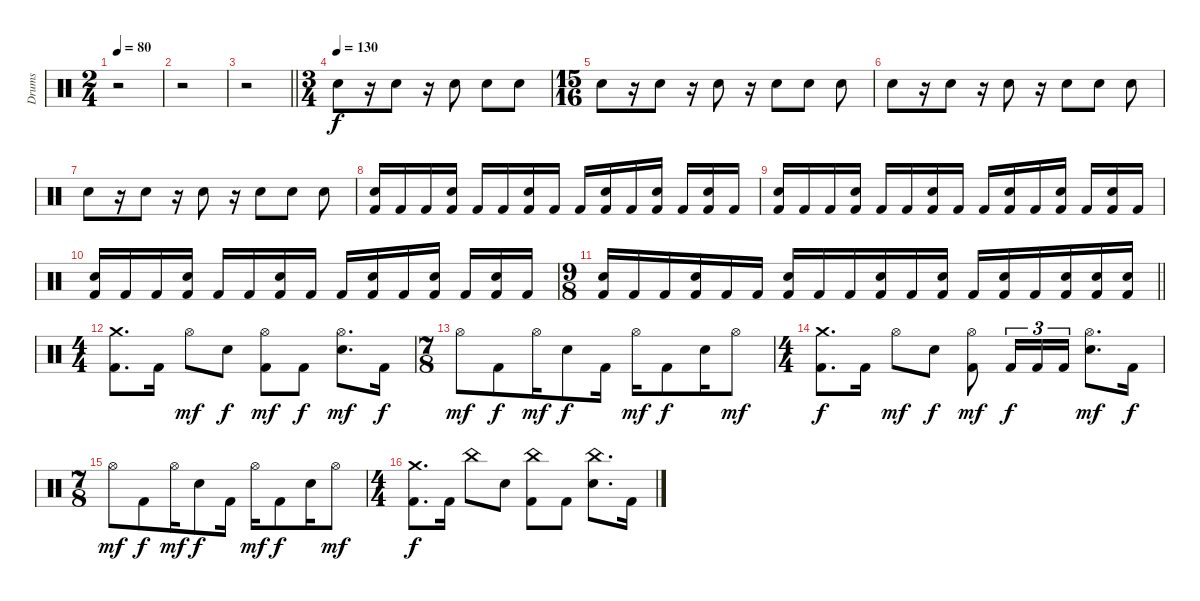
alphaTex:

\track ("Drums" "Drums") {instrument percussion}
\staff {score}
\articulation defaults
\ts (2 4)
\tempo 80
\clef neutral
\ks c
r.2{dy f} |
r.2 |
\barLineRight lightlight
r.2 |
\ts (3 4)
\tempo (130)
"Electric Snare (hit)".8 r.16 "Electric Snare (hit)".8 r.16 "Electric Snare (hit)".8 "Electric Snare (hit)".8 "Electric Snare (hit)".8 |
\ts (15 16)
"Electric Snare (hit)".8 r.16 "Electric Snare (hit)".8 r.16 "Electric Snare (hit)".8 r.16 "Electric Snare (hit)".8 "Electric Snare (hit)".8 "Electric Snare (hit)".8 |
"Electric Snare (hit)".8 r.16 "Electric Snare (hit)".8 r.16 "Electric Snare (hit)".8 r.16 "Electric Snare (hit)".8 "Electric Snare (hit)".8 "Electric Snare (hit)".8 |
"Electric Snare (hit)".8 r.16 "Electric Snare (hit)".8 r.16 "Electric Snare (hit)".8 r.16 "Electric Snare (hit)".8 "Electric Snare (hit)".8 "Electric Snare (hit)".8 |
("Kick (hit) 2" "Electric Snare (hit)").16 "Kick (hit) 2".16 "Kick (hit) 2".16 ("Kick (hit) 2" "Electric Snare (hit)").16 "Kick (hit) 2".16 "Kick (hit) 2".16 ("Kick (hit) 2" "Electric Snare (hit)").16 "Kick (hit) 2".16 "Kick (hit) 2".16 ("Kick (hit) 2" "Electric Snare (hit)").16 "Kick (hit) 2".16 ("Kick (hit) 2" "Electric Snare (hit)").16 "Kick (hit) 2".16 ("Kick (hit) 2" "Electric Snare (hit)").16 "Kick (hit) 2".16 |
("Kick (hit) 2" "Electric Snare (hit)").16 "Kick (hit) 2".16 "Kick (hit) 2".16 ("Kick (hit) 2" "Electric Snare (hit)").16 "Kick (hit) 2".16 "Kick (hit) 2".16 ("Kick (hit) 2" "Electric Snare (hit)").16 "Kick (hit) 2".16 "Kick (hit) 2".16 ("Kick (hit) 2" "Electric Snare (hit)").16 "Kick (hit) 2".16 ("Kick (hit) 2" "Electric Snare (hit)").16 "Kick (hit) 2".16 ("Kick (hit) 2" "Electric Snare (hit)").16 "Kick (hit) 2".16 |
("Kick (hit) 2" "Electric Snare (hit)").16 "Kick (hit) 2".16 "Kick (hit) 2".16 ("Kick (hit) 2" "Electric Snare (hit)").16 "Kick (hit) 2".16 "Kick (hit) 2".16 ("Kick (hit) 2" "Electric Snare (hit)").16 "Kick (hit) 2".16 "Kick (hit) 2".16 ("Kick (hit) 2" "Electric Snare (hit)").16 "Kick (hit) 2".16 ("Kick (hit) 2" "Electric Snare (hit)").16 "Kick (hit) 2".16 ("Kick (hit) 2" "Electric Snare (hit)").16 "Kick (hit) 2".16 |
\ts (9 8)
\barLineRight lightlight
("Kick (hit) 2" "Electric Snare (hit)").16 "Kick (hit) 2".16 "Kick (hit) 2".16 ("Kick (hit) 2" "Electric Snare (hit)").16 "Kick (hit) 2".16 "Kick (hit) 2".16 ("Kick (hit) 2" "Electric Snare (hit)").16 "Kick (hit) 2".16 "Kick (hit) 2".16 ("Kick (hit) 2" "Electric Snare (hit)").16 "Kick (hit) 2".16 ("Kick (hit) 2" "Electric Snare (hit)").16 "Kick (hit) 2".16 ("Kick (hit) 2" "Electric Snare (hit)").16 "Kick (hit) 2".16 ("Kick (hit) 2" "Electric Snare (hit)").16 ("Kick (hit) 2" "Electric Snare (hit)").16 ("Kick (hit) 2" "Electric Snare (hit)").16 |
\ts (4 4)
("Kick (hit) 2" "Crash medium (hit)").8{d} "Kick (hit) 2".16 "Hi-Hat (open)".8{dy mf} "Electric Snare (hit)".8{dy f} ("Kick (hit) 2" "Hi-Hat (open)").8{dy mf} "Kick (hit) 2".8{dy f} ("Hi-Hat (open)" "Electric Snare (hit)").8{d dy mf} "Kick (hit) 2".16{dy f} |
\ts (7 8)
"Hi-Hat (open)".8{dy mf} "Kick (hit) 2".8{dy f} "Hi-Hat (open)".16{dy mf} "Electric Snare (hit)".8{dy f} "Kick (hit) 2".16 "Hi-Hat (open)".16{dy mf} "Kick (hit) 2".8{dy f} "Electric Snare (hit)".16 "Hi-Hat (open)".8{dy mf} |
\ts (4 4)
("Kick (hit) 2" "Crash medium (hit)").8{d dy f} "Kick (hit) 2".16 "Hi-Hat (open)".8{dy mf} "Electric Snare (hit)".8{dy f} ("Kick (hit) 2" "Hi-Hat (open)").8{dy mf} "Kick (hit) 2".16{tu (3 2) dy f} "Kick (hit) 2".16{tu (3 2)} "Kick (hit) 2".16{tu (3 2)} ("Hi-Hat (open)" "Electric Snare (hit)").8{d dy mf} "Kick (hit) 2".16{dy f} |
\ts (7 8)
"Hi-Hat (open)".8{dy mf} "Kick (hit) 2".8{dy f} "Hi-Hat (open)".16{dy mf} "Electric Snare (hit)".8{dy f} "Kick (hit) 2".16 "Hi-Hat (open)".16{dy mf} "Kick (hit) 2".8{dy f} "Electric Snare (hit)".16 "Hi-Hat (open)".8{dy mf} |
\ts (4 4)
("Kick (hit) 2" "Crash medium (hit)").8{d dy f} "Kick (hit) 2".16 "China (hit)".8 "Electric Snare (hit)".8 ("Kick (hit) 2" "China (hit)").8 "Kick (hit) 2".8 ("China (hit)" "Electric Snare (hit)").8{d} "Kick (hit) 2".16
